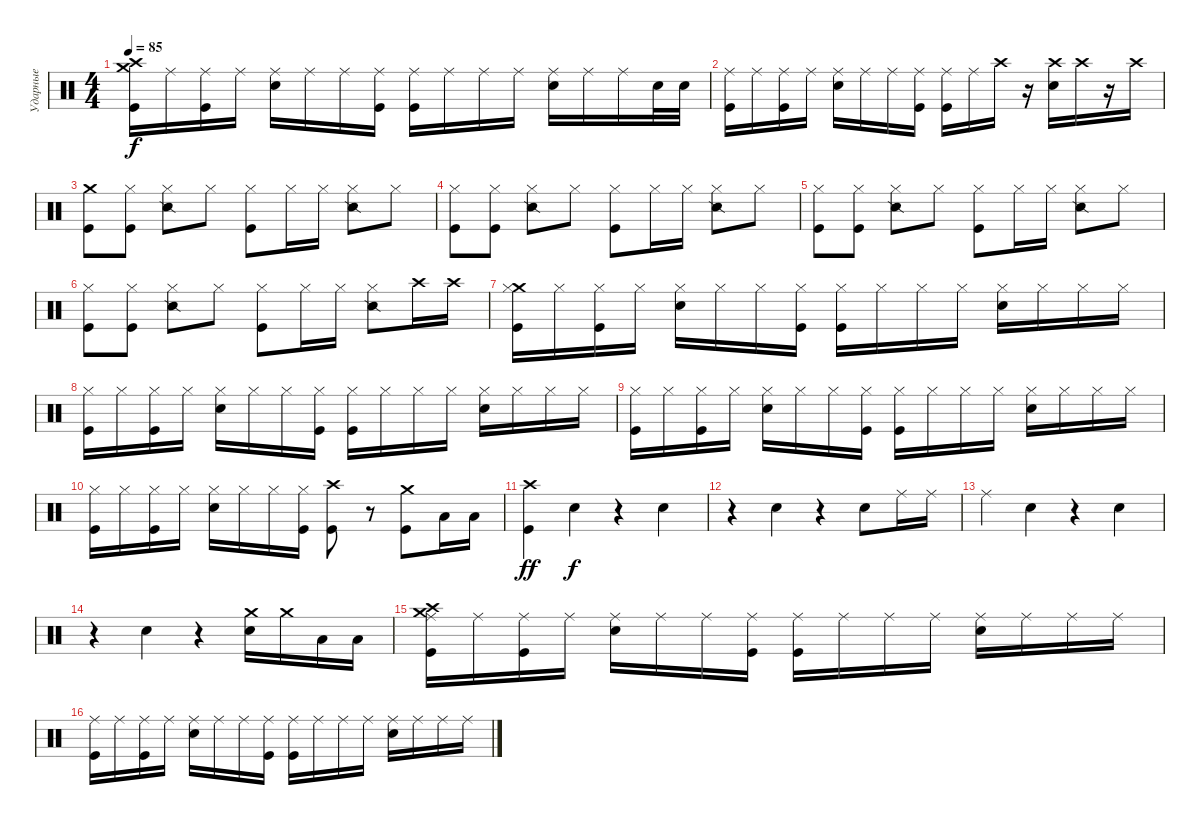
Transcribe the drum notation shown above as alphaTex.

\track ("Ударные" "Ударные") {instrument percussion}
\staff {score}
\articulation defaults
\ts (4 4)
\tempo 85
\clef neutral
\ks c
("Crash medium (hit)" "Crash high (hit)" "Kick (hit)").16{dy f} "Ride (middle)".16 ("Ride (middle)" "Kick (hit)").16 "Ride (middle)".16 ("Ride (middle)" "Electric Snare (hit)").16 "Ride (middle)".16 "Ride (middle)".16 ("Ride (middle)" "Kick (hit)").16 ("Ride (middle)" "Kick (hit)").16 "Ride (middle)".16 "Ride (middle)".16 "Ride (middle)".16 ("Ride (middle)" "Electric Snare (hit)").16 "Ride (middle)".16 "Ride (middle)".16 "Electric Snare (hit)".32 "Electric Snare (hit)".32 |
("Ride (middle)" "Kick (hit)").16 "Ride (middle)".16 ("Ride (middle)" "Kick (hit)").16 "Ride (middle)".16 ("Ride (middle)" "Electric Snare (hit)").16 "Ride (middle)".16 "Ride (middle)".16 ("Ride (middle)" "Kick (hit)").16 ("Ride (middle)" "Kick (hit)").16 "Ride (middle)".16 "Crash high (hit)".16 r.16 ("Crash high (hit)" "Electric Snare (hit)").16 "Crash high (hit)".16 r.16 "Crash high (hit)".16 |
("Crash medium (hit)" "Kick (hit)").8 ("Hi-Hat (closed)" "Kick (hit)").8 ("Hi-Hat (closed)" "Snare (side stick) 2").8 "Hi-Hat (closed)".8 ("Hi-Hat (closed)" "Kick (hit)").8 "Hi-Hat (closed)".16 "Hi-Hat (closed)".16 ("Hi-Hat (closed)" "Snare (side stick) 2").8 "Hi-Hat (closed)".8 |
("Hi-Hat (closed)" "Kick (hit)").8 ("Hi-Hat (closed)" "Kick (hit)").8 ("Hi-Hat (closed)" "Snare (side stick) 2").8 "Hi-Hat (closed)".8 ("Hi-Hat (closed)" "Kick (hit)").8 "Hi-Hat (closed)".16 "Hi-Hat (closed)".16 ("Hi-Hat (closed)" "Snare (side stick) 2").8 "Hi-Hat (closed)".8 |
("Hi-Hat (closed)" "Kick (hit)").8 ("Hi-Hat (closed)" "Kick (hit)").8 ("Hi-Hat (closed)" "Snare (side stick) 2").8 "Hi-Hat (closed)".8 ("Hi-Hat (closed)" "Kick (hit)").8 "Hi-Hat (closed)".16 "Hi-Hat (closed)".16 ("Hi-Hat (closed)" "Snare (side stick) 2").8 "Hi-Hat (closed)".8 |
("Hi-Hat (closed)" "Kick (hit)").8 ("Hi-Hat (closed)" "Kick (hit)").8 ("Hi-Hat (closed)" "Snare (side stick) 2").8 "Hi-Hat (closed)".8 ("Hi-Hat (closed)" "Kick (hit)").8 "Hi-Hat (closed)".16 "Hi-Hat (closed)".16 ("Hi-Hat (closed)" "Snare (side stick) 2").8 "Crash high (hit)".16 "Crash high (hit)".16 |
("Crash medium (hit)" "Hi-Hat (closed)" "Kick (hit)").16 "Hi-Hat (closed)".16 ("Hi-Hat (closed)" "Kick (hit)").16 "Hi-Hat (closed)".16 ("Hi-Hat (closed)" "Electric Snare (hit)").16 "Hi-Hat (closed)".16 "Hi-Hat (closed)".16 ("Hi-Hat (closed)" "Kick (hit)").16 ("Hi-Hat (closed)" "Kick (hit)").16 "Hi-Hat (closed)".16 "Hi-Hat (closed)".16 "Hi-Hat (closed)".16 ("Hi-Hat (closed)" "Electric Snare (hit)").16 "Hi-Hat (closed)".16 "Hi-Hat (closed)".16 "Hi-Hat (closed)".16 |
("Hi-Hat (closed)" "Kick (hit)").16 "Hi-Hat (closed)".16 ("Hi-Hat (closed)" "Kick (hit)").16 "Hi-Hat (closed)".16 ("Hi-Hat (closed)" "Electric Snare (hit)").16 "Hi-Hat (closed)".16 "Hi-Hat (closed)".16 ("Hi-Hat (closed)" "Kick (hit)").16 ("Hi-Hat (closed)" "Kick (hit)").16 "Hi-Hat (closed)".16 "Hi-Hat (closed)".16 "Hi-Hat (closed)".16 ("Hi-Hat (closed)" "Electric Snare (hit)").16 "Hi-Hat (closed)".16 "Hi-Hat (closed)".16 "Hi-Hat (closed)".16 |
("Hi-Hat (closed)" "Kick (hit)").16 "Hi-Hat (closed)".16 ("Hi-Hat (closed)" "Kick (hit)").16 "Hi-Hat (closed)".16 ("Hi-Hat (closed)" "Electric Snare (hit)").16 "Hi-Hat (closed)".16 "Hi-Hat (closed)".16 ("Hi-Hat (closed)" "Kick (hit)").16 ("Hi-Hat (closed)" "Kick (hit)").16 "Hi-Hat (closed)".16 "Hi-Hat (closed)".16 "Hi-Hat (closed)".16 ("Hi-Hat (closed)" "Electric Snare (hit)").16 "Hi-Hat (closed)".16 "Hi-Hat (closed)".16 "Hi-Hat (closed)".16 |
("Hi-Hat (closed)" "Kick (hit)").16 "Hi-Hat (closed)".16 ("Hi-Hat (closed)" "Kick (hit)").16 "Hi-Hat (closed)".16 ("Hi-Hat (closed)" "Electric Snare (hit)").16 "Hi-Hat (closed)".16 "Hi-Hat (closed)".16 ("Hi-Hat (closed)" "Kick (hit)").16 ("Crash high (hit)" "Kick (hit)").8 r.8 ("Crash medium (hit)" "Kick (hit)").8 "Low Floor Tom (hit)".16 "Low Floor Tom (hit)".16 |
("Crash high (hit)" "Kick (hit)").4{dy ff} "Hand Clap (hit)".4{dy f} r.4 "Hand Clap (hit)".4 |
r.4 "Hand Clap (hit)".4 r.4 "Hand Clap (hit)".8 "Ride (middle)".16 "Ride (middle)".16 |
"Ride (middle)".4 "Hand Clap (hit)".4 r.4 "Hand Clap (hit)".4 |
r.4 "Hand Clap (hit)".4 r.4 ("Crash medium (hit)" "Hand Clap (hit)").16 "Crash medium (hit)".16 "Low Floor Tom (hit)".16 "Low Floor Tom (hit)".16 |
("Crash high (hit)" "Crash medium (hit)" "Ride (middle)" "Kick (hit)").16 "Ride (middle)".16 ("Ride (middle)" "Kick (hit)").16 "Ride (middle)".16 ("Ride (middle)" "Electric Snare (hit)").16 "Ride (middle)".16 "Ride (middle)".16 ("Ride (middle)" "Kick (hit)").16 ("Ride (middle)" "Kick (hit)").16 "Ride (middle)".16 "Ride (middle)".16 "Ride (middle)".16 ("Ride (middle)" "Electric Snare (hit)").16 "Ride (middle)".16 "Ride (middle)".16 "Ride (middle)".16 |
("Ride (middle)" "Kick (hit)").16 "Ride (middle)".16 ("Ride (middle)" "Kick (hit)").16 "Ride (middle)".16 ("Ride (middle)" "Electric Snare (hit)").16 "Ride (middle)".16 "Ride (middle)".16 ("Ride (middle)" "Kick (hit)").16 ("Ride (middle)" "Kick (hit)").16 "Ride (middle)".16 "Ride (middle)".16 "Ride (middle)".16 ("Ride (middle)" "Electric Snare (hit)").16 "Ride (middle)".16 "Ride (middle)".16 "Ride (middle)".16
